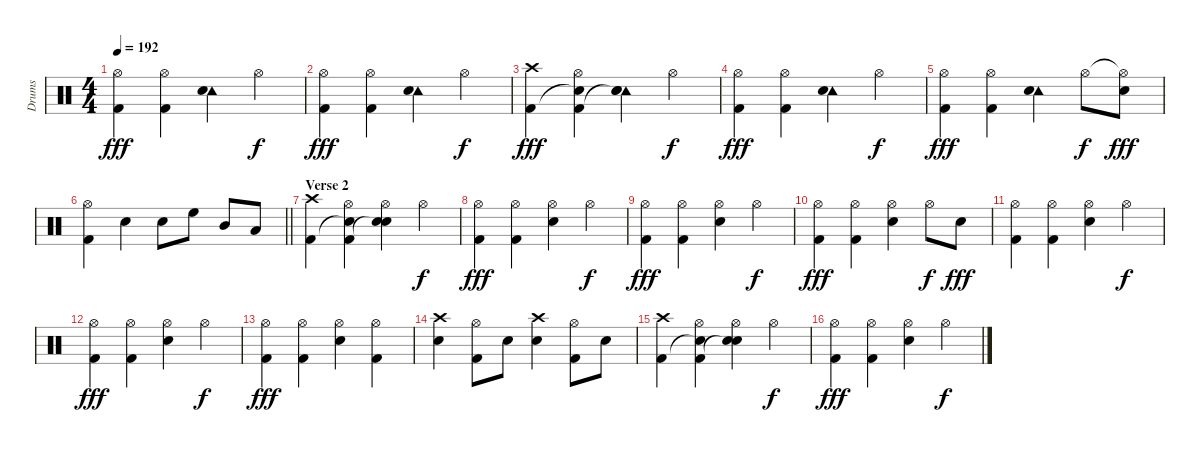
\track ("Drums" "Drums") {instrument percussion}
\staff {score}
\articulation defaults
\ts (4 4)
\tempo 192
\clef neutral
\ks c
("Hi-Hat (open)" "Kick (hit) 2").4{dy fff} ("Hi-Hat (open)" "Kick (hit) 2").4 ("Tambourine (hit)" "Snare (hit) 2").4 "Hi-Hat (open)".4{dy f} |
("Hi-Hat (open)" "Kick (hit) 2").4{dy fff} ("Hi-Hat (open)" "Kick (hit) 2").4 ("Tambourine (hit)" "Snare (hit) 2").4 "Hi-Hat (open)".4{dy f} |
("Crash high (hit)" "Kick (hit) 2").4{dy fff} ("Hi-Hat (open)" "Snare (hit)"{t} "Kick (hit) 2").4 ("Tambourine (hit)" "Snare (hit) 2" "Snare (hit)"{t}).4 "Hi-Hat (open)".4{dy f} |
("Hi-Hat (open)" "Kick (hit) 2").4{dy fff} ("Hi-Hat (open)" "Kick (hit) 2").4 ("Tambourine (hit)" "Snare (hit) 2").4 "Hi-Hat (open)".4{dy f} |
("Hi-Hat (open)" "Kick (hit) 2").4{dy fff} ("Hi-Hat (open)" "Kick (hit) 2").4 ("Tambourine (hit)" "Snare (hit) 2").4 "Hi-Hat (open)".8{dy f} ("Hi-Hat (open)"{t} "Snare (hit) 2").8{dy fff} |
\barLineRight lightlight
("Hi-Hat (open)" "Kick (hit) 2").4 "Snare (hit) 2".4 "Snare (hit) 2".8 "High Floor Tom (hit)".8 "Mid Tom (hit)".8 "Low Tom (hit)".8 |
\section ("" "Verse 2")
("Crash high (hit)" "Kick (hit) 2").4 ("Hi-Hat (open)" "Snare (hit)"{t} "Kick (hit) 2").4 ("Hi-Hat (open)" "Snare (hit) 2" "Snare (hit)"{t}).4 "Hi-Hat (open)".4{dy f} |
("Hi-Hat (open)" "Kick (hit) 2").4{dy fff} ("Hi-Hat (open)" "Kick (hit) 2").4 ("Hi-Hat (open)" "Snare (hit) 2").4 "Hi-Hat (open)".4{dy f} |
("Hi-Hat (open)" "Kick (hit) 2").4{dy fff} ("Hi-Hat (open)" "Kick (hit) 2").4 ("Hi-Hat (open)" "Snare (hit) 2").4 "Hi-Hat (open)".4{dy f} |
("Hi-Hat (open)" "Kick (hit) 2").4{dy fff} ("Hi-Hat (open)" "Kick (hit) 2").4 ("Hi-Hat (open)" "Snare (hit) 2").4 "Hi-Hat (open)".8{dy f} "Snare (hit) 2".8{dy fff} |
("Hi-Hat (open)" "Kick (hit) 2").4 ("Hi-Hat (open)" "Kick (hit) 2").4 ("Hi-Hat (open)" "Snare (hit) 2").4 "Hi-Hat (open)".4{dy f} |
("Hi-Hat (open)" "Kick (hit) 2").4{dy fff} ("Hi-Hat (open)" "Kick (hit) 2").4 ("Hi-Hat (open)" "Snare (hit) 2").4 "Hi-Hat (open)".4{dy f} |
("Hi-Hat (open)" "Kick (hit) 2").4{dy fff} ("Hi-Hat (open)" "Kick (hit) 2").4 ("Hi-Hat (open)" "Snare (hit) 2").4 ("Hi-Hat (open)" "Kick (hit) 2").4 |
("Crash high (hit)" "Snare (hit) 2").4 ("Hi-Hat (open)" "Kick (hit) 2").8 "Snare (hit) 2".8 ("Crash high (hit)" "Snare (hit) 2").4 ("Hi-Hat (open)" "Kick (hit) 2").8 "Snare (hit) 2".8 |
("Crash high (hit)" "Kick (hit) 2").4 ("Hi-Hat (open)" "Snare (hit)"{t} "Kick (hit) 2").4 ("Hi-Hat (open)" "Snare (hit) 2" "Snare (hit)"{t}).4 "Hi-Hat (open)".4{dy f} |
("Hi-Hat (open)" "Kick (hit) 2").4{dy fff} ("Hi-Hat (open)" "Kick (hit) 2").4 ("Hi-Hat (open)" "Snare (hit) 2").4 "Hi-Hat (open)".4{dy f}
